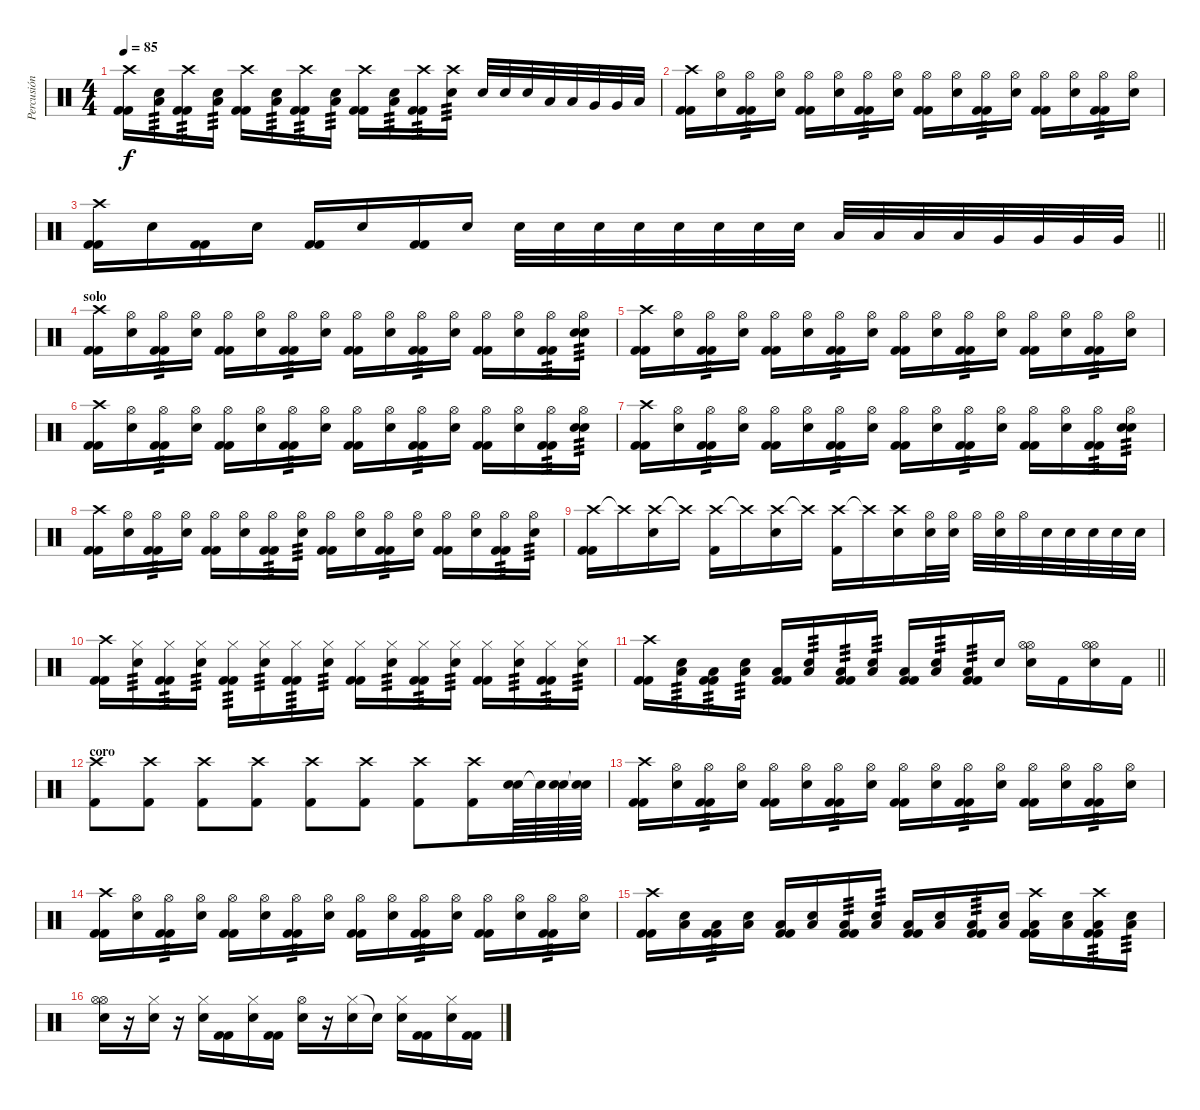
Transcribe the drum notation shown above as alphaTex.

\track ("Percusión" "Percusión") {instrument percussion}
\staff {score}
\articulation defaults
\ts (4 4)
\tempo 85
\clef neutral
\ks c
("Crash high (hit)" "Kick (hit) 2" "Kick (hit) 2").16{dy f} ("Low Floor Tom (hit)" "Electric Snare (hit)").16{tp 3} ("Crash high (hit)" "Kick (hit) 2" "Kick (hit) 2").16{tp 3} ("Low Floor Tom (hit)" "Electric Snare (hit)").16{tp 3} ("Crash high (hit)" "Kick (hit) 2" "Kick (hit) 2").16 ("Low Floor Tom (hit)" "Electric Snare (hit)").16{tp 3} ("Crash high (hit)" "Kick (hit) 2" "Kick (hit) 2").16{tp 3} ("Low Floor Tom (hit)" "Electric Snare (hit)").16{tp 3} ("Crash high (hit)" "Kick (hit) 2" "Kick (hit) 2").16 ("Low Floor Tom (hit)" "Electric Snare (hit)").16{tp 3} ("Crash high (hit)" "Kick (hit) 2" "Kick (hit) 2").16{tp 3} ("Crash high (hit)" "Electric Snare (hit)").16{tp 3} "Electric Snare (hit)".32 "Electric Snare (hit)".32 "Electric Snare (hit)".32 "Low Tom (hit)".32 "Low Tom (hit)".32 "Very Low Tom (hit)".32 "Very Low Tom (hit)".32 "Low Floor Tom (hit)".32 |
("Crash high (hit)" "Kick (hit) 2" "Kick (hit) 2").16 ("Hi-Hat (open)" "Electric Snare (hit)").16 ("Hi-Hat (open)" "Kick (hit) 2" "Kick (hit) 2").16{tp 3} ("Hi-Hat (open)" "Electric Snare (hit)").16 ("Hi-Hat (open)" "Kick (hit) 2" "Kick (hit) 2").16 ("Hi-Hat (open)" "Electric Snare (hit)").16 ("Hi-Hat (open)" "Kick (hit) 2" "Kick (hit) 2").16{tp 3} ("Hi-Hat (open)" "Electric Snare (hit)").16 ("Hi-Hat (open)" "Kick (hit) 2" "Kick (hit) 2").16 ("Hi-Hat (open)" "Electric Snare (hit)").16 ("Hi-Hat (open)" "Kick (hit) 2" "Kick (hit) 2").16{tp 3} ("Hi-Hat (open)" "Electric Snare (hit)").16 ("Hi-Hat (open)" "Kick (hit) 2" "Kick (hit) 2").16 ("Hi-Hat (open)" "Electric Snare (hit)").16 ("Hi-Hat (open)" "Kick (hit) 2" "Kick (hit) 2").16{tp 3} ("Hi-Hat (open)" "Electric Snare (hit)").16 |
\barLineRight lightlight
("Crash high (hit)" "Kick (hit) 2" "Kick (hit) 2").16{volume 14} "Electric Snare (hit)".16 ("Kick (hit) 2" "Kick (hit) 2").16 "Electric Snare (hit)".16 ("Kick (hit) 2" "Kick (hit) 2").16 "Electric Snare (hit)".16 ("Kick (hit) 2" "Kick (hit) 2").16 "Electric Snare (hit)".16 "Electric Snare (hit)".32 "Electric Snare (hit)".32 "Electric Snare (hit)".32 "Electric Snare (hit)".32 "Electric Snare (hit)".32 "Electric Snare (hit)".32 "Electric Snare (hit)".32 "Electric Snare (hit)".32 "Low Tom (hit)".32 "Low Tom (hit)".32 "Low Tom (hit)".32 "Low Tom (hit)".32 "Very Low Tom (hit)".32 "Very Low Tom (hit)".32 "Very Low Tom (hit)".32 "Very Low Tom (hit)".32 |
\section ("" "solo")
("Crash high (hit)" "Kick (hit) 2" "Kick (hit) 2").16{volume 14} ("Hi-Hat (open)" "Electric Snare (hit)").16 ("Hi-Hat (open)" "Kick (hit) 2" "Kick (hit) 2").16{tp 3} ("Hi-Hat (open)" "Electric Snare (hit)").16 ("Hi-Hat (open)" "Kick (hit) 2" "Kick (hit) 2").16 ("Hi-Hat (open)" "Electric Snare (hit)").16 ("Hi-Hat (open)" "Kick (hit) 2" "Kick (hit) 2").16{tp 3} ("Hi-Hat (open)" "Electric Snare (hit)").16 ("Hi-Hat (open)" "Kick (hit) 2" "Kick (hit) 2").16 ("Hi-Hat (open)" "Electric Snare (hit)").16 ("Hi-Hat (open)" "Kick (hit) 2" "Kick (hit) 2").16{tp 3} ("Hi-Hat (open)" "Electric Snare (hit)").16 ("Hi-Hat (open)" "Kick (hit) 2" "Kick (hit) 2").16 ("Hi-Hat (open)" "Electric Snare (hit)").16 ("Hi-Hat (open)" "Kick (hit) 2" "Kick (hit) 2").16{tp 3} ("Hi-Hat (open)" "Electric Snare (hit)" "Electric Snare (hit)").16{tp 3} |
("Crash high (hit)" "Kick (hit) 2" "Kick (hit) 2").16 ("Hi-Hat (open)" "Electric Snare (hit)").16 ("Hi-Hat (open)" "Kick (hit) 2" "Kick (hit) 2").16{tp 3} ("Hi-Hat (open)" "Electric Snare (hit)").16 ("Hi-Hat (open)" "Kick (hit) 2" "Kick (hit) 2").16 ("Hi-Hat (open)" "Electric Snare (hit)").16 ("Hi-Hat (open)" "Kick (hit) 2" "Kick (hit) 2").16{tp 3} ("Hi-Hat (open)" "Electric Snare (hit)").16 ("Hi-Hat (open)" "Kick (hit) 2" "Kick (hit) 2").16 ("Hi-Hat (open)" "Electric Snare (hit)").16 ("Hi-Hat (open)" "Kick (hit) 2" "Kick (hit) 2").16{tp 3} ("Hi-Hat (open)" "Electric Snare (hit)").16 ("Hi-Hat (open)" "Kick (hit) 2" "Kick (hit) 2").16 ("Hi-Hat (open)" "Electric Snare (hit)").16 ("Hi-Hat (open)" "Kick (hit) 2" "Kick (hit) 2").16{tp 3} ("Hi-Hat (open)" "Electric Snare (hit)").16 |
("Crash high (hit)" "Kick (hit) 2" "Kick (hit) 2").16{volume 14} ("Hi-Hat (open)" "Electric Snare (hit)").16 ("Hi-Hat (open)" "Kick (hit) 2" "Kick (hit) 2").16{tp 3} ("Hi-Hat (open)" "Electric Snare (hit)").16 ("Hi-Hat (open)" "Kick (hit) 2" "Kick (hit) 2").16 ("Hi-Hat (open)" "Electric Snare (hit)").16 ("Hi-Hat (open)" "Kick (hit) 2" "Kick (hit) 2").16{tp 3} ("Hi-Hat (open)" "Electric Snare (hit)").16 ("Hi-Hat (open)" "Kick (hit) 2" "Kick (hit) 2").16 ("Hi-Hat (open)" "Electric Snare (hit)").16 ("Hi-Hat (open)" "Kick (hit) 2" "Kick (hit) 2").16{tp 3} ("Hi-Hat (open)" "Electric Snare (hit)").16 ("Hi-Hat (open)" "Kick (hit) 2" "Kick (hit) 2").16 ("Hi-Hat (open)" "Electric Snare (hit)").16 ("Hi-Hat (open)" "Kick (hit) 2" "Kick (hit) 2").16{tp 3} ("Hi-Hat (open)" "Electric Snare (hit)" "Electric Snare (hit)").16{tp 3} |
("Crash high (hit)" "Kick (hit) 2" "Kick (hit) 2").16 ("Hi-Hat (open)" "Electric Snare (hit)").16 ("Hi-Hat (open)" "Kick (hit) 2" "Kick (hit) 2").16{tp 3} ("Hi-Hat (open)" "Electric Snare (hit)").16 ("Hi-Hat (open)" "Kick (hit) 2" "Kick (hit) 2").16 ("Hi-Hat (open)" "Electric Snare (hit)").16 ("Hi-Hat (open)" "Kick (hit) 2" "Kick (hit) 2").16{tp 3} ("Hi-Hat (open)" "Electric Snare (hit)").16 ("Hi-Hat (open)" "Kick (hit) 2" "Kick (hit) 2").16 ("Hi-Hat (open)" "Electric Snare (hit)").16 ("Hi-Hat (open)" "Kick (hit) 2" "Kick (hit) 2").16{tp 3} ("Hi-Hat (open)" "Electric Snare (hit)").16 ("Hi-Hat (open)" "Kick (hit) 2" "Kick (hit) 2").16 ("Hi-Hat (open)" "Electric Snare (hit)").16 ("Hi-Hat (open)" "Kick (hit) 2" "Kick (hit) 2").16{tp 3} ("Hi-Hat (open)" "Electric Snare (hit)" "Electric Snare (hit)").16{tp 3} |
("Crash high (hit)" "Kick (hit) 2" "Kick (hit) 2").16{volume 14} ("Hi-Hat (open)" "Electric Snare (hit)").16 ("Hi-Hat (open)" "Kick (hit) 2" "Kick (hit) 2").16{tp 3} ("Hi-Hat (open)" "Electric Snare (hit)").16 ("Hi-Hat (open)" "Kick (hit) 2" "Kick (hit) 2").16 ("Hi-Hat (open)" "Electric Snare (hit)").16 ("Hi-Hat (open)" "Kick (hit) 2" "Kick (hit) 2").16{tp 3} ("Hi-Hat (open)" "Electric Snare (hit)").16{tp 3} ("Hi-Hat (open)" "Kick (hit) 2" "Kick (hit) 2").16 ("Hi-Hat (open)" "Electric Snare (hit)").16 ("Hi-Hat (open)" "Kick (hit) 2" "Kick (hit) 2").16{tp 3} ("Hi-Hat (open)" "Electric Snare (hit)").16 ("Hi-Hat (open)" "Kick (hit) 2" "Kick (hit) 2").16 ("Hi-Hat (open)" "Electric Snare (hit)").16 ("Hi-Hat (open)" "Kick (hit) 2" "Kick (hit) 2").16{tp 3} ("Hi-Hat (open)" "Electric Snare (hit)").16{tp 3} |
("Crash high (hit)" "Kick (hit) 2" "Kick (hit) 2").16 "Crash high (hit)"{t}.16 ("Crash high (hit)" "Electric Snare (hit)").16 "Crash high (hit)"{t}.16 ("Crash high (hit)" "Kick (hit) 2").16 "Crash high (hit)"{t}.16 ("Crash high (hit)" "Electric Snare (hit)").16 "Crash high (hit)"{t}.16 ("Crash high (hit)" "Kick (hit) 2").16 "Crash high (hit)"{t}.16 ("Crash high (hit)" "Electric Snare (hit)").16 ("Hi-Hat (open)" "Electric Snare (hit)").32 ("Hi-Hat (open)" "Electric Snare (hit)").32 "Hi-Hat (open)".32 ("Hi-Hat (open)" "Electric Snare (hit)").32 "Hi-Hat (open)".32 "Electric Snare (hit)".32 "Electric Snare (hit)".32 "Electric Snare (hit)".32 "Electric Snare (hit)".32 "Electric Snare (hit)".32 |
("Crash high (hit)" "Kick (hit) 2" "Kick (hit) 2").16{volume 14} ("Hi-Hat (closed)" "Electric Snare (hit)").16{tp 3} ("Hi-Hat (closed)" "Kick (hit) 2" "Kick (hit) 2").16{tp 3} ("Hi-Hat (closed)" "Electric Snare (hit)").16{tp 3} ("Hi-Hat (closed)" "Kick (hit) 2" "Kick (hit) 2").16{tp 3} ("Hi-Hat (closed)" "Electric Snare (hit)").16{tp 3} ("Hi-Hat (closed)" "Kick (hit) 2" "Kick (hit) 2").16{tp 3} ("Hi-Hat (closed)" "Electric Snare (hit)").16{tp 3} ("Hi-Hat (closed)" "Kick (hit) 2" "Kick (hit) 2").16 ("Hi-Hat (closed)" "Electric Snare (hit)").16{tp 3} ("Hi-Hat (closed)" "Kick (hit) 2" "Kick (hit) 2").16{tp 3} ("Hi-Hat (closed)" "Electric Snare (hit)").16{tp 3} ("Hi-Hat (closed)" "Kick (hit) 2" "Kick (hit) 2").16 ("Hi-Hat (closed)" "Electric Snare (hit)").16{tp 3} ("Hi-Hat (closed)" "Kick (hit) 2" "Kick (hit) 2").16{tp 3} ("Hi-Hat (closed)" "Electric Snare (hit)").16{tp 3} |
\barLineRight lightlight
("Crash high (hit)" "Kick (hit) 2" "Kick (hit) 2").16 ("Low Floor Tom (hit)" "Electric Snare (hit)").16{tp 3} ("Low Floor Tom (hit)" "Kick (hit) 2" "Kick (hit) 2").16{tp 3} ("Low Floor Tom (hit)" "Electric Snare (hit)").16{tp 3} ("Low Floor Tom (hit)" "Kick (hit) 2" "Kick (hit) 2").16 ("Low Floor Tom (hit)" "Electric Snare (hit)").16{tp 3} ("Low Floor Tom (hit)" "Kick (hit) 2" "Kick (hit) 2").16{tp 3} ("Low Floor Tom (hit)" "Electric Snare (hit)").16{tp 3} ("Low Floor Tom (hit)" "Kick (hit) 2" "Kick (hit) 2").16 ("Low Floor Tom (hit)" "Electric Snare (hit)").16{tp 3} ("Low Floor Tom (hit)" "Kick (hit) 2" "Kick (hit) 2").16{tp 3} "Electric Snare (hit)".16 ("Hi-Hat (open)" "Hi-Hat (open)" "Electric Snare (hit)").16 "Kick (hit) 2".16 ("Hi-Hat (open)" "Hi-Hat (open)" "Electric Snare (hit)").16 "Kick (hit) 2".16 |
\section ("" "coro")
("Crash high (hit)" "Kick (hit) 2").8 ("Crash high (hit)" "Kick (hit) 2").8 ("Crash high (hit)" "Kick (hit) 2").8 ("Crash high (hit)" "Kick (hit) 2").8 ("Crash high (hit)" "Kick (hit) 2").8 ("Crash high (hit)" "Kick (hit) 2").8 ("Crash high (hit)" "Kick (hit) 2").8 ("Crash high (hit)" "Kick (hit) 2").16 ("Electric Snare (hit)" "Electric Snare (hit)").64 "Electric Snare (hit)"{t}.64 ("Electric Snare (hit)" "Electric Snare (hit)").64 ("Snare (hit)"{t} "Snare (hit)"{t}).64 |
("Crash high (hit)" "Kick (hit) 2" "Kick (hit) 2").16{volume 14} ("Hi-Hat (open)" "Electric Snare (hit)").16 ("Hi-Hat (open)" "Kick (hit) 2" "Kick (hit) 2").16{tp 3} ("Hi-Hat (open)" "Electric Snare (hit)").16 ("Hi-Hat (open)" "Kick (hit) 2" "Kick (hit) 2").16 ("Hi-Hat (open)" "Electric Snare (hit)").16 ("Hi-Hat (open)" "Kick (hit) 2" "Kick (hit) 2").16{tp 3} ("Hi-Hat (open)" "Electric Snare (hit)").16 ("Hi-Hat (open)" "Kick (hit) 2" "Kick (hit) 2").16 ("Hi-Hat (open)" "Electric Snare (hit)").16 ("Hi-Hat (open)" "Kick (hit) 2" "Kick (hit) 2").16{tp 3} ("Hi-Hat (open)" "Electric Snare (hit)").16 ("Hi-Hat (open)" "Kick (hit) 2" "Kick (hit) 2").16 ("Hi-Hat (open)" "Electric Snare (hit)").16 ("Hi-Hat (open)" "Kick (hit) 2" "Kick (hit) 2").16{tp 3} ("Hi-Hat (open)" "Electric Snare (hit)").16 |
("Crash high (hit)" "Kick (hit) 2" "Kick (hit) 2").16 ("Hi-Hat (open)" "Electric Snare (hit)").16 ("Hi-Hat (open)" "Kick (hit) 2" "Kick (hit) 2").16{tp 3} ("Hi-Hat (open)" "Electric Snare (hit)").16 ("Hi-Hat (open)" "Kick (hit) 2" "Kick (hit) 2").16 ("Hi-Hat (open)" "Electric Snare (hit)").16 ("Hi-Hat (open)" "Kick (hit) 2" "Kick (hit) 2").16{tp 3} ("Hi-Hat (open)" "Electric Snare (hit)").16 ("Hi-Hat (open)" "Kick (hit) 2" "Kick (hit) 2").16 ("Hi-Hat (open)" "Electric Snare (hit)").16 ("Hi-Hat (open)" "Kick (hit) 2" "Kick (hit) 2").16{tp 3} ("Hi-Hat (open)" "Electric Snare (hit)").16 ("Hi-Hat (open)" "Kick (hit) 2" "Kick (hit) 2").16 ("Hi-Hat (open)" "Electric Snare (hit)").16 ("Hi-Hat (open)" "Kick (hit) 2" "Kick (hit) 2").16{tp 3} ("Hi-Hat (open)" "Electric Snare (hit)").16 |
("Crash high (hit)" "Kick (hit) 2" "Kick (hit) 2").16{volume 14} ("Low Floor Tom (hit)" "Electric Snare (hit)").16 ("Low Floor Tom (hit)" "Kick (hit) 2" "Kick (hit) 2").16{tp 3} ("Low Floor Tom (hit)" "Electric Snare (hit)").16 ("Low Floor Tom (hit)" "Kick (hit) 2" "Kick (hit) 2").16 ("Low Floor Tom (hit)" "Electric Snare (hit)").16 ("Low Floor Tom (hit)" "Kick (hit) 2" "Kick (hit) 2").16{tp 3} ("Low Floor Tom (hit)" "Electric Snare (hit)").16{tp 3} ("Low Floor Tom (hit)" "Kick (hit) 2" "Kick (hit) 2").16 ("Low Floor Tom (hit)" "Electric Snare (hit)").16 ("Low Floor Tom (hit)" "Kick (hit) 2" "Kick (hit) 2").16{tp 3} ("Low Floor Tom (hit)" "Electric Snare (hit)").16 ("Crash high (hit)" "Low Floor Tom (hit)" "Kick (hit) 2" "Kick (hit) 2").16 ("Low Floor Tom (hit)" "Electric Snare (hit)").16 ("Crash high (hit)" "Low Floor Tom (hit)" "Kick (hit) 2" "Kick (hit) 2").16{tp 3} ("Low Floor Tom (hit)" "Electric Snare (hit)").16{tp 3} |
("Hi-Hat (open)" "Hi-Hat (open)" "Electric Snare (hit)").16 r.16 ("Hi-Hat (closed)" "Electric Snare (hit)").16 r.16 ("Hi-Hat (closed)" "Electric Snare (hit)").16 ("Kick (hit) 2" "Kick (hit) 2").16 ("Hi-Hat (closed)" "Electric Snare (hit)").16 ("Kick (hit) 2" "Kick (hit) 2").16 ("Hi-Hat (open)" "Electric Snare (hit)").16 r.16 ("Hi-Hat (closed)" "Electric Snare (hit)").16 "Snare (hit)"{t}.16 ("Hi-Hat (closed)" "Electric Snare (hit)").16 ("Kick (hit) 2" "Kick (hit) 2").16 ("Hi-Hat (closed)" "Electric Snare (hit)").16 ("Kick (hit) 2" "Kick (hit) 2").16
